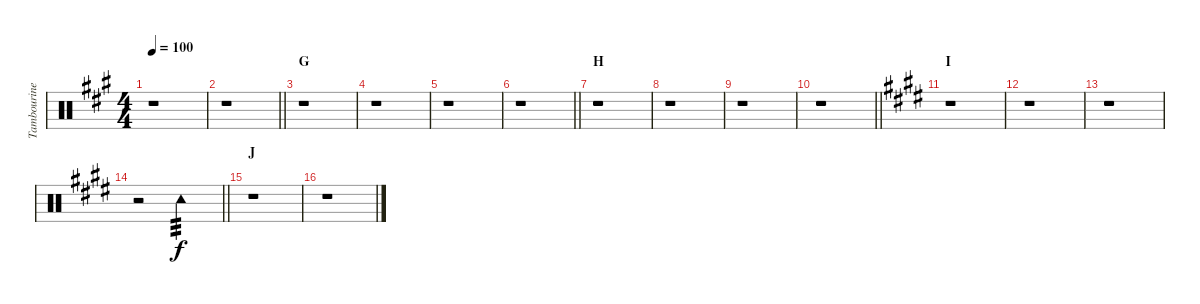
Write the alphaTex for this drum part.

\track ("Tambourine" "Tambourine") {instrument percussion}
\staff {score}
\articulation defaults
\ts (4 4)
\tempo 100
\clef neutral
\ks a
r.1{dy f} |
\barLineRight lightlight
r.1 |
\section ("" "G")
r.1 |
r.1 |
r.1 |
\barLineRight lightlight
r.1 |
\section ("" "H")
r.1 |
r.1 |
r.1 |
\barLineRight lightlight
r.1 |
\section ("" "I")
\ks e
r.1 |
r.1 |
r.1 |
\barLineRight lightlight
r.2 "Tambourine (hit)".2{tp 3} |
\section ("" "J")
r.1 |
r.1
